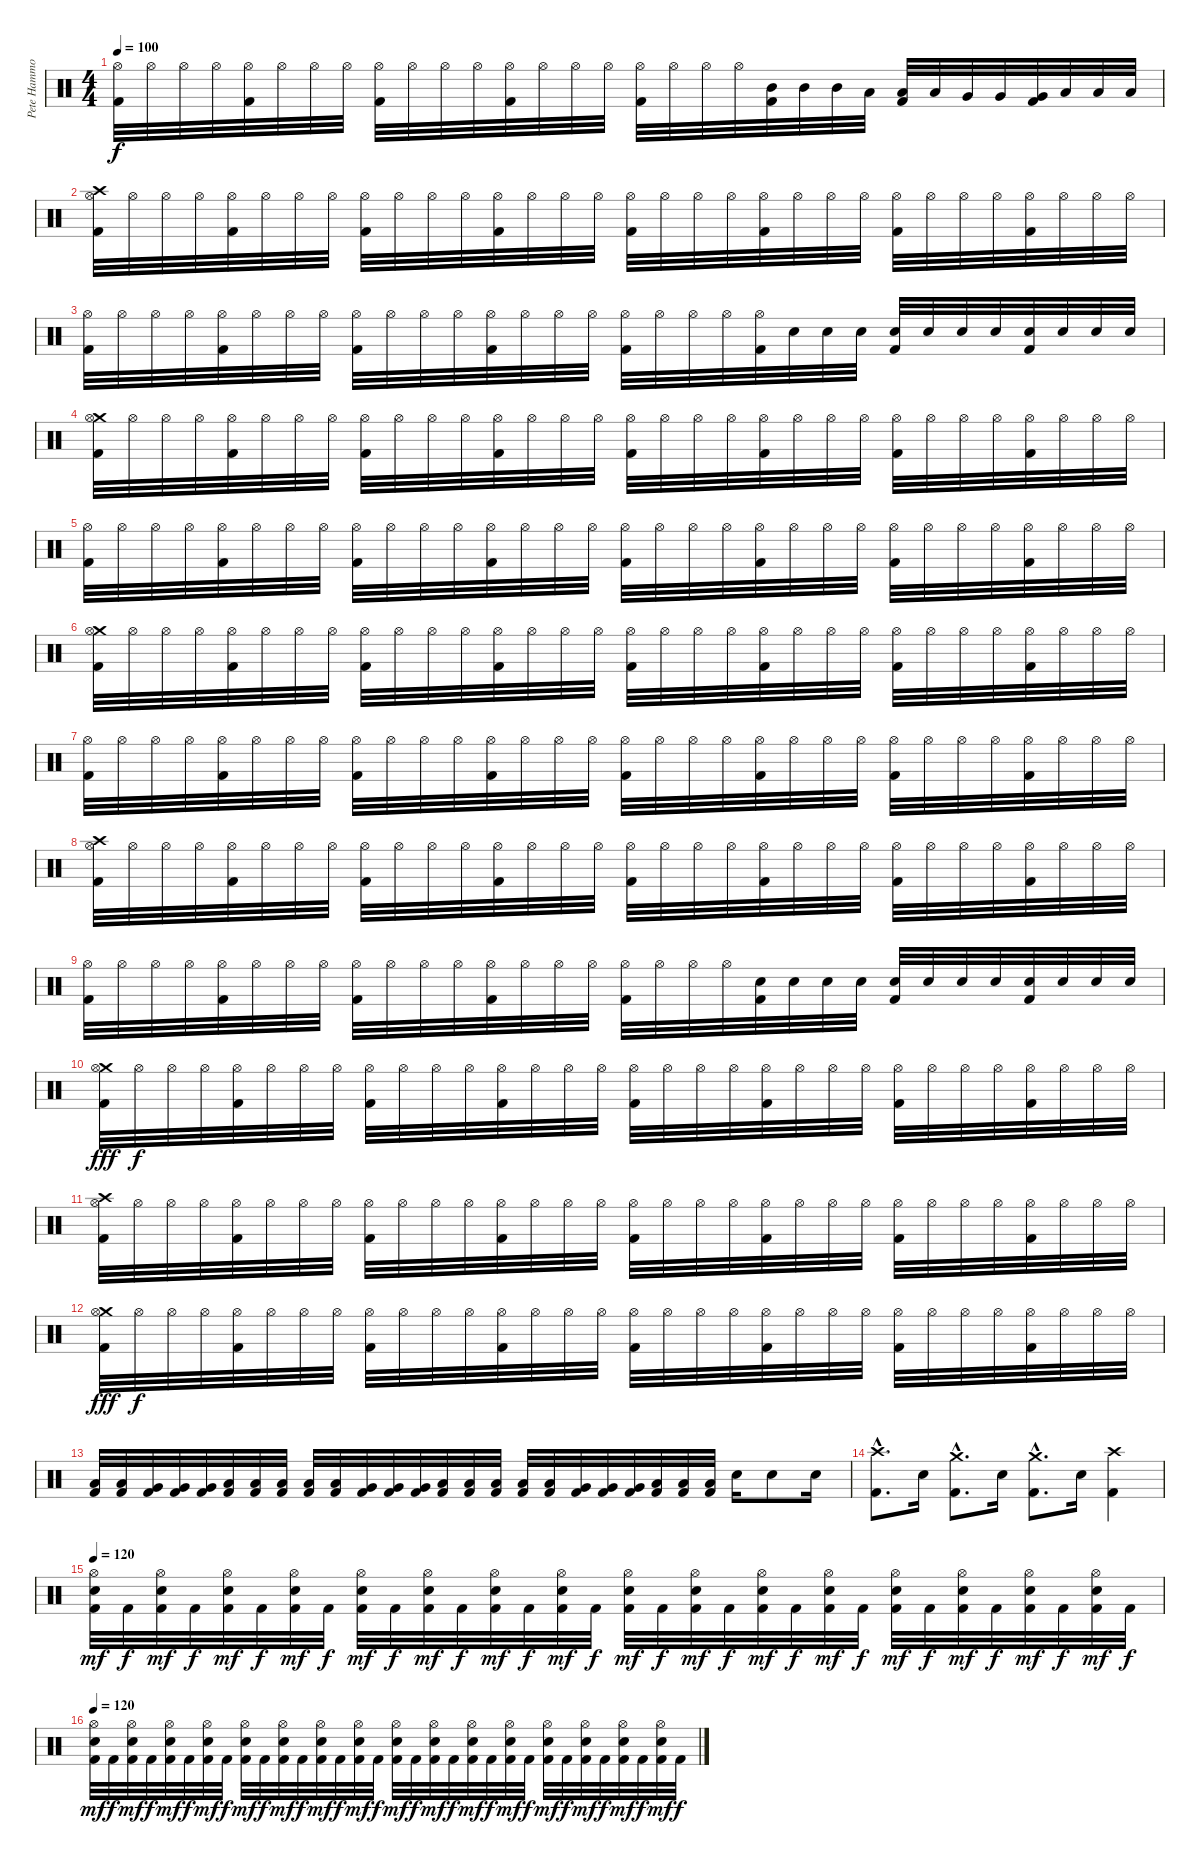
\track ("Pete Hammoura" "Pete Hammo") {instrument percussion}
\staff {score}
\articulation defaults
\ts (4 4)
\tempo 100
\clef neutral
\ks c
("Hi-Hat (open)" "Kick (hit) 2").32{dy f} "Hi-Hat (open)".32 "Hi-Hat (open)".32 "Hi-Hat (open)".32 ("Hi-Hat (open)" "Kick (hit) 2").32 "Hi-Hat (open)".32 "Hi-Hat (open)".32 "Hi-Hat (open)".32 ("Hi-Hat (open)" "Kick (hit) 2").32 "Hi-Hat (open)".32 "Hi-Hat (open)".32 "Hi-Hat (open)".32 ("Hi-Hat (open)" "Kick (hit) 2").32 "Hi-Hat (open)".32 "Hi-Hat (open)".32 "Hi-Hat (open)".32 ("Hi-Hat (open)" "Kick (hit) 2").32 "Hi-Hat (open)".32 "Hi-Hat (open)".32 "Hi-Hat (open)".32 ("Mid Tom (hit)" "Kick (hit) 2").32 "Mid Tom (hit)".32 "Mid Tom (hit)".32 "Low Tom (hit)".32 ("Low Tom (hit)" "Kick (hit) 2").32 "Low Tom (hit)".32 "Very Low Tom (hit)".32 "Very Low Tom (hit)".32 ("Very Low Tom (hit)" "Kick (hit) 2").32 "Low Floor Tom (hit)".32 "Low Floor Tom (hit)".32 "Low Floor Tom (hit)".32 |
("Crash high (hit)" "Hi-Hat (open)" "Kick (hit) 2").32 "Hi-Hat (open)".32 "Hi-Hat (open)".32 "Hi-Hat (open)".32 ("Hi-Hat (open)" "Kick (hit) 2").32 "Hi-Hat (open)".32 "Hi-Hat (open)".32 "Hi-Hat (open)".32 ("Hi-Hat (open)" "Kick (hit) 2").32 "Hi-Hat (open)".32 "Hi-Hat (open)".32 "Hi-Hat (open)".32 ("Hi-Hat (open)" "Kick (hit) 2").32 "Hi-Hat (open)".32 "Hi-Hat (open)".32 "Hi-Hat (open)".32 ("Hi-Hat (open)" "Kick (hit) 2").32 "Hi-Hat (open)".32 "Hi-Hat (open)".32 "Hi-Hat (open)".32 ("Hi-Hat (open)" "Kick (hit) 2").32 "Hi-Hat (open)".32 "Hi-Hat (open)".32 "Hi-Hat (open)".32 ("Hi-Hat (open)" "Kick (hit) 2").32 "Hi-Hat (open)".32 "Hi-Hat (open)".32 "Hi-Hat (open)".32 ("Hi-Hat (open)" "Kick (hit) 2").32 "Hi-Hat (open)".32 "Hi-Hat (open)".32 "Hi-Hat (open)".32 |
("Hi-Hat (open)" "Kick (hit) 2").32 "Hi-Hat (open)".32 "Hi-Hat (open)".32 "Hi-Hat (open)".32 ("Hi-Hat (open)" "Kick (hit) 2").32 "Hi-Hat (open)".32 "Hi-Hat (open)".32 "Hi-Hat (open)".32 ("Hi-Hat (open)" "Kick (hit) 2").32 "Hi-Hat (open)".32 "Hi-Hat (open)".32 "Hi-Hat (open)".32 ("Hi-Hat (open)" "Kick (hit) 2").32 "Hi-Hat (open)".32 "Hi-Hat (open)".32 "Hi-Hat (open)".32 ("Hi-Hat (open)" "Kick (hit) 2").32 "Hi-Hat (open)".32 "Hi-Hat (open)".32 "Hi-Hat (open)".32 ("Hi-Hat (open)" "Kick (hit) 2").32 "Electric Snare (hit)".32 "Electric Snare (hit)".32 "Electric Snare (hit)".32 ("Electric Snare (hit)" "Kick (hit) 2").32 "Electric Snare (hit)".32 "Electric Snare (hit)".32 "Electric Snare (hit)".32 ("Electric Snare (hit)" "Kick (hit) 2").32 "Electric Snare (hit)".32 "Electric Snare (hit)".32 "Electric Snare (hit)".32 |
("Crash medium (hit)" "Hi-Hat (open)" "Kick (hit) 2").32 "Hi-Hat (open)".32 "Hi-Hat (open)".32 "Hi-Hat (open)".32 ("Hi-Hat (open)" "Kick (hit) 2").32 "Hi-Hat (open)".32 "Hi-Hat (open)".32 "Hi-Hat (open)".32 ("Hi-Hat (open)" "Kick (hit) 2").32 "Hi-Hat (open)".32 "Hi-Hat (open)".32 "Hi-Hat (open)".32 ("Hi-Hat (open)" "Kick (hit) 2").32 "Hi-Hat (open)".32 "Hi-Hat (open)".32 "Hi-Hat (open)".32 ("Hi-Hat (open)" "Kick (hit) 2").32 "Hi-Hat (open)".32 "Hi-Hat (open)".32 "Hi-Hat (open)".32 ("Hi-Hat (open)" "Kick (hit) 2").32 "Hi-Hat (open)".32 "Hi-Hat (open)".32 "Hi-Hat (open)".32 ("Hi-Hat (open)" "Kick (hit) 2").32 "Hi-Hat (open)".32 "Hi-Hat (open)".32 "Hi-Hat (open)".32 ("Hi-Hat (open)" "Kick (hit) 2").32 "Hi-Hat (open)".32 "Hi-Hat (open)".32 "Hi-Hat (open)".32 |
("Hi-Hat (open)" "Kick (hit) 2").32 "Hi-Hat (open)".32 "Hi-Hat (open)".32 "Hi-Hat (open)".32 ("Hi-Hat (open)" "Kick (hit) 2").32 "Hi-Hat (open)".32 "Hi-Hat (open)".32 "Hi-Hat (open)".32 ("Hi-Hat (open)" "Kick (hit) 2").32 "Hi-Hat (open)".32 "Hi-Hat (open)".32 "Hi-Hat (open)".32 ("Hi-Hat (open)" "Kick (hit) 2").32 "Hi-Hat (open)".32 "Hi-Hat (open)".32 "Hi-Hat (open)".32 ("Hi-Hat (open)" "Kick (hit) 2").32 "Hi-Hat (open)".32 "Hi-Hat (open)".32 "Hi-Hat (open)".32 ("Hi-Hat (open)" "Kick (hit) 2").32 "Hi-Hat (open)".32 "Hi-Hat (open)".32 "Hi-Hat (open)".32 ("Hi-Hat (open)" "Kick (hit) 2").32 "Hi-Hat (open)".32 "Hi-Hat (open)".32 "Hi-Hat (open)".32 ("Hi-Hat (open)" "Kick (hit) 2").32 "Hi-Hat (open)".32 "Hi-Hat (open)".32 "Hi-Hat (open)".32 |
("Crash medium (hit)" "Hi-Hat (open)" "Kick (hit) 2").32 "Hi-Hat (open)".32 "Hi-Hat (open)".32 "Hi-Hat (open)".32 ("Hi-Hat (open)" "Kick (hit) 2").32 "Hi-Hat (open)".32 "Hi-Hat (open)".32 "Hi-Hat (open)".32 ("Hi-Hat (open)" "Kick (hit) 2").32 "Hi-Hat (open)".32 "Hi-Hat (open)".32 "Hi-Hat (open)".32 ("Hi-Hat (open)" "Kick (hit) 2").32 "Hi-Hat (open)".32 "Hi-Hat (open)".32 "Hi-Hat (open)".32 ("Hi-Hat (open)" "Kick (hit) 2").32 "Hi-Hat (open)".32 "Hi-Hat (open)".32 "Hi-Hat (open)".32 ("Hi-Hat (open)" "Kick (hit) 2").32 "Hi-Hat (open)".32 "Hi-Hat (open)".32 "Hi-Hat (open)".32 ("Hi-Hat (open)" "Kick (hit) 2").32 "Hi-Hat (open)".32 "Hi-Hat (open)".32 "Hi-Hat (open)".32 ("Hi-Hat (open)" "Kick (hit) 2").32 "Hi-Hat (open)".32 "Hi-Hat (open)".32 "Hi-Hat (open)".32 |
("Hi-Hat (open)" "Kick (hit) 2").32 "Hi-Hat (open)".32 "Hi-Hat (open)".32 "Hi-Hat (open)".32 ("Hi-Hat (open)" "Kick (hit) 2").32 "Hi-Hat (open)".32 "Hi-Hat (open)".32 "Hi-Hat (open)".32 ("Hi-Hat (open)" "Kick (hit) 2").32 "Hi-Hat (open)".32 "Hi-Hat (open)".32 "Hi-Hat (open)".32 ("Hi-Hat (open)" "Kick (hit) 2").32 "Hi-Hat (open)".32 "Hi-Hat (open)".32 "Hi-Hat (open)".32 ("Hi-Hat (open)" "Kick (hit) 2").32 "Hi-Hat (open)".32 "Hi-Hat (open)".32 "Hi-Hat (open)".32 ("Hi-Hat (open)" "Kick (hit) 2").32 "Hi-Hat (open)".32 "Hi-Hat (open)".32 "Hi-Hat (open)".32 ("Hi-Hat (open)" "Kick (hit) 2").32 "Hi-Hat (open)".32 "Hi-Hat (open)".32 "Hi-Hat (open)".32 ("Hi-Hat (open)" "Kick (hit) 2").32 "Hi-Hat (open)".32 "Hi-Hat (open)".32 "Hi-Hat (open)".32 |
("Crash high (hit)" "Hi-Hat (open)" "Kick (hit) 2").32 "Hi-Hat (open)".32 "Hi-Hat (open)".32 "Hi-Hat (open)".32 ("Hi-Hat (open)" "Kick (hit) 2").32 "Hi-Hat (open)".32 "Hi-Hat (open)".32 "Hi-Hat (open)".32 ("Hi-Hat (open)" "Kick (hit) 2").32 "Hi-Hat (open)".32 "Hi-Hat (open)".32 "Hi-Hat (open)".32 ("Hi-Hat (open)" "Kick (hit) 2").32 "Hi-Hat (open)".32 "Hi-Hat (open)".32 "Hi-Hat (open)".32 ("Hi-Hat (open)" "Kick (hit) 2").32 "Hi-Hat (open)".32 "Hi-Hat (open)".32 "Hi-Hat (open)".32 ("Hi-Hat (open)" "Kick (hit) 2").32 "Hi-Hat (open)".32 "Hi-Hat (open)".32 "Hi-Hat (open)".32 ("Hi-Hat (open)" "Kick (hit) 2").32 "Hi-Hat (open)".32 "Hi-Hat (open)".32 "Hi-Hat (open)".32 ("Hi-Hat (open)" "Kick (hit) 2").32 "Hi-Hat (open)".32 "Hi-Hat (open)".32 "Hi-Hat (open)".32 |
("Hi-Hat (open)" "Kick (hit) 2").32 "Hi-Hat (open)".32 "Hi-Hat (open)".32 "Hi-Hat (open)".32 ("Hi-Hat (open)" "Kick (hit) 2").32 "Hi-Hat (open)".32 "Hi-Hat (open)".32 "Hi-Hat (open)".32 ("Hi-Hat (open)" "Kick (hit) 2").32 "Hi-Hat (open)".32 "Hi-Hat (open)".32 "Hi-Hat (open)".32 ("Hi-Hat (open)" "Kick (hit) 2").32 "Hi-Hat (open)".32 "Hi-Hat (open)".32 "Hi-Hat (open)".32 ("Hi-Hat (open)" "Kick (hit) 2").32 "Hi-Hat (open)".32 "Hi-Hat (open)".32 "Hi-Hat (open)".32 ("Electric Snare (hit)" "Kick (hit) 2").32 "Electric Snare (hit)".32 "Electric Snare (hit)".32 "Electric Snare (hit)".32 ("Electric Snare (hit)" "Kick (hit) 2").32 "Electric Snare (hit)".32 "Electric Snare (hit)".32 "Electric Snare (hit)".32 ("Electric Snare (hit)" "Kick (hit) 2").32 "Electric Snare (hit)".32 "Electric Snare (hit)".32 "Electric Snare (hit)".32 |
("Crash medium (hit)" "Hi-Hat (open)" "Kick (hit) 2").32{dy fff} "Hi-Hat (open)".32{dy f} "Hi-Hat (open)".32 "Hi-Hat (open)".32 ("Hi-Hat (open)" "Kick (hit) 2").32 "Hi-Hat (open)".32 "Hi-Hat (open)".32 "Hi-Hat (open)".32 ("Hi-Hat (open)" "Kick (hit) 2").32 "Hi-Hat (open)".32 "Hi-Hat (open)".32 "Hi-Hat (open)".32 ("Hi-Hat (open)" "Kick (hit) 2").32 "Hi-Hat (open)".32 "Hi-Hat (open)".32 "Hi-Hat (open)".32 ("Hi-Hat (open)" "Kick (hit) 2").32 "Hi-Hat (open)".32 "Hi-Hat (open)".32 "Hi-Hat (open)".32 ("Hi-Hat (open)" "Kick (hit) 2").32 "Hi-Hat (open)".32 "Hi-Hat (open)".32 "Hi-Hat (open)".32 ("Hi-Hat (open)" "Kick (hit) 2").32 "Hi-Hat (open)".32 "Hi-Hat (open)".32 "Hi-Hat (open)".32 ("Hi-Hat (open)" "Kick (hit) 2").32 "Hi-Hat (open)".32 "Hi-Hat (open)".32 "Hi-Hat (open)".32 |
("Crash high (hit)" "Hi-Hat (open)" "Kick (hit) 2").32 "Hi-Hat (open)".32 "Hi-Hat (open)".32 "Hi-Hat (open)".32 ("Hi-Hat (open)" "Kick (hit) 2").32 "Hi-Hat (open)".32 "Hi-Hat (open)".32 "Hi-Hat (open)".32 ("Hi-Hat (open)" "Kick (hit) 2").32 "Hi-Hat (open)".32 "Hi-Hat (open)".32 "Hi-Hat (open)".32 ("Hi-Hat (open)" "Kick (hit) 2").32 "Hi-Hat (open)".32 "Hi-Hat (open)".32 "Hi-Hat (open)".32 ("Hi-Hat (open)" "Kick (hit) 2").32 "Hi-Hat (open)".32 "Hi-Hat (open)".32 "Hi-Hat (open)".32 ("Hi-Hat (open)" "Kick (hit) 2").32 "Hi-Hat (open)".32 "Hi-Hat (open)".32 "Hi-Hat (open)".32 ("Hi-Hat (open)" "Kick (hit) 2").32 "Hi-Hat (open)".32 "Hi-Hat (open)".32 "Hi-Hat (open)".32 ("Hi-Hat (open)" "Kick (hit) 2").32 "Hi-Hat (open)".32 "Hi-Hat (open)".32 "Hi-Hat (open)".32 |
("Crash medium (hit)" "Hi-Hat (open)" "Kick (hit) 2").32{dy fff} "Hi-Hat (open)".32{dy f} "Hi-Hat (open)".32 "Hi-Hat (open)".32 ("Hi-Hat (open)" "Kick (hit) 2").32 "Hi-Hat (open)".32 "Hi-Hat (open)".32 "Hi-Hat (open)".32 ("Hi-Hat (open)" "Kick (hit) 2").32 "Hi-Hat (open)".32 "Hi-Hat (open)".32 "Hi-Hat (open)".32 ("Hi-Hat (open)" "Kick (hit) 2").32 "Hi-Hat (open)".32 "Hi-Hat (open)".32 "Hi-Hat (open)".32 ("Hi-Hat (open)" "Kick (hit) 2").32 "Hi-Hat (open)".32 "Hi-Hat (open)".32 "Hi-Hat (open)".32 ("Hi-Hat (open)" "Kick (hit) 2").32 "Hi-Hat (open)".32 "Hi-Hat (open)".32 "Hi-Hat (open)".32 ("Hi-Hat (open)" "Kick (hit) 2").32 "Hi-Hat (open)".32 "Hi-Hat (open)".32 "Hi-Hat (open)".32 ("Hi-Hat (open)" "Kick (hit) 2").32 "Hi-Hat (open)".32 "Hi-Hat (open)".32 "Hi-Hat (open)".32 |
("Low Tom (hit)" "Kick (hit) 2").32 ("Low Tom (hit)" "Kick (hit) 2").32 ("Very Low Tom (hit)" "Kick (hit) 2").32 ("Very Low Tom (hit)" "Kick (hit) 2").32 ("Very Low Tom (hit)" "Kick (hit) 2").32 ("Low Floor Tom (hit)" "Kick (hit) 2").32 ("Low Floor Tom (hit)" "Kick (hit) 2").32 ("Low Floor Tom (hit)" "Kick (hit) 2").32 ("Low Tom (hit)" "Kick (hit) 2").32 ("Low Tom (hit)" "Kick (hit) 2").32 ("Very Low Tom (hit)" "Kick (hit) 2").32 ("Very Low Tom (hit)" "Kick (hit) 2").32 ("Very Low Tom (hit)" "Kick (hit) 2").32 ("Low Floor Tom (hit)" "Kick (hit) 2").32 ("Low Floor Tom (hit)" "Kick (hit) 2").32 ("Low Floor Tom (hit)" "Kick (hit) 2").32 ("Low Tom (hit)" "Kick (hit) 2").32 ("Low Tom (hit)" "Kick (hit) 2").32 ("Very Low Tom (hit)" "Kick (hit) 2").32 ("Very Low Tom (hit)" "Kick (hit) 2").32 ("Very Low Tom (hit)" "Kick (hit) 2").32 ("Low Floor Tom (hit)" "Kick (hit) 2").32 ("Low Floor Tom (hit)" "Kick (hit) 2").32 ("Low Floor Tom (hit)" "Kick (hit) 2").32 "Electric Snare (hit)".16 "Electric Snare (hit)".8 "Electric Snare (hit)".16 |
("Crash high (hit)"{hac} "Kick (hit) 2"{hac}).8{d} "Electric Snare (hit)".16 ("Crash medium (hit)"{hac} "Kick (hit) 2"{hac}).8{d} "Electric Snare (hit)".16 ("Crash medium (hit)"{hac} "Kick (hit) 2"{hac}).8{d} "Electric Snare (hit)".16 ("Crash high (hit)" "Kick (hit) 2").4 |
\tempo 120
("Hi-Hat (open)" "Electric Snare (hit)" "Kick (hit) 2").32{dy mf} "Kick (hit) 2".32{dy f} ("Hi-Hat (open)" "Electric Snare (hit)" "Kick (hit) 2").32{dy mf} "Kick (hit) 2".32{dy f} ("Hi-Hat (open)" "Electric Snare (hit)" "Kick (hit) 2").32{dy mf} "Kick (hit) 2".32{dy f} ("Hi-Hat (open)" "Electric Snare (hit)" "Kick (hit) 2").32{dy mf} "Kick (hit) 2".32{dy f} ("Hi-Hat (open)" "Electric Snare (hit)" "Kick (hit) 2").32{dy mf} "Kick (hit) 2".32{dy f} ("Hi-Hat (open)" "Electric Snare (hit)" "Kick (hit) 2").32{dy mf} "Kick (hit) 2".32{dy f} ("Hi-Hat (open)" "Electric Snare (hit)" "Kick (hit) 2").32{dy mf} "Kick (hit) 2".32{dy f} ("Hi-Hat (open)" "Electric Snare (hit)" "Kick (hit) 2").32{dy mf} "Kick (hit) 2".32{dy f} ("Hi-Hat (open)" "Electric Snare (hit)" "Kick (hit) 2").32{dy mf} "Kick (hit) 2".32{dy f} ("Hi-Hat (open)" "Electric Snare (hit)" "Kick (hit) 2").32{dy mf} "Kick (hit) 2".32{dy f} ("Hi-Hat (open)" "Electric Snare (hit)" "Kick (hit) 2").32{dy mf} "Kick (hit) 2".32{dy f} ("Hi-Hat (open)" "Electric Snare (hit)" "Kick (hit) 2").32{dy mf} "Kick (hit) 2".32{dy f} ("Hi-Hat (open)" "Electric Snare (hit)" "Kick (hit) 2").32{dy mf} "Kick (hit) 2".32{dy f} ("Hi-Hat (open)" "Electric Snare (hit)" "Kick (hit) 2").32{dy mf} "Kick (hit) 2".32{dy f} ("Hi-Hat (open)" "Electric Snare (hit)" "Kick (hit) 2").32{dy mf} "Kick (hit) 2".32{dy f} ("Hi-Hat (open)" "Electric Snare (hit)" "Kick (hit) 2").32{dy mf} "Kick (hit) 2".32{dy f} |
\tempo 120
("Hi-Hat (open)" "Electric Snare (hit)" "Kick (hit) 2").32{dy mf} "Kick (hit) 2".32{dy f} ("Hi-Hat (open)" "Electric Snare (hit)" "Kick (hit) 2").32{dy mf} "Kick (hit) 2".32{dy f} ("Hi-Hat (open)" "Electric Snare (hit)" "Kick (hit) 2").32{dy mf} "Kick (hit) 2".32{dy f} ("Hi-Hat (open)" "Electric Snare (hit)" "Kick (hit) 2").32{dy mf} "Kick (hit) 2".32{dy f} ("Hi-Hat (open)" "Electric Snare (hit)" "Kick (hit) 2").32{dy mf} "Kick (hit) 2".32{dy f} ("Hi-Hat (open)" "Electric Snare (hit)" "Kick (hit) 2").32{dy mf} "Kick (hit) 2".32{dy f} ("Hi-Hat (open)" "Electric Snare (hit)" "Kick (hit) 2").32{dy mf} "Kick (hit) 2".32{dy f} ("Hi-Hat (open)" "Electric Snare (hit)" "Kick (hit) 2").32{dy mf} "Kick (hit) 2".32{dy f} ("Hi-Hat (open)" "Electric Snare (hit)" "Kick (hit) 2").32{dy mf} "Kick (hit) 2".32{dy f} ("Hi-Hat (open)" "Electric Snare (hit)" "Kick (hit) 2").32{dy mf} "Kick (hit) 2".32{dy f} ("Hi-Hat (open)" "Electric Snare (hit)" "Kick (hit) 2").32{dy mf} "Kick (hit) 2".32{dy f} ("Hi-Hat (open)" "Electric Snare (hit)" "Kick (hit) 2").32{dy mf} "Kick (hit) 2".32{dy f} ("Hi-Hat (open)" "Electric Snare (hit)" "Kick (hit) 2").32{dy mf} "Kick (hit) 2".32{dy f} ("Hi-Hat (open)" "Electric Snare (hit)" "Kick (hit) 2").32{dy mf} "Kick (hit) 2".32{dy f} ("Hi-Hat (open)" "Electric Snare (hit)" "Kick (hit) 2").32{dy mf} "Kick (hit) 2".32{dy f} ("Hi-Hat (open)" "Electric Snare (hit)" "Kick (hit) 2").32{dy mf} "Kick (hit) 2".32{dy f}
